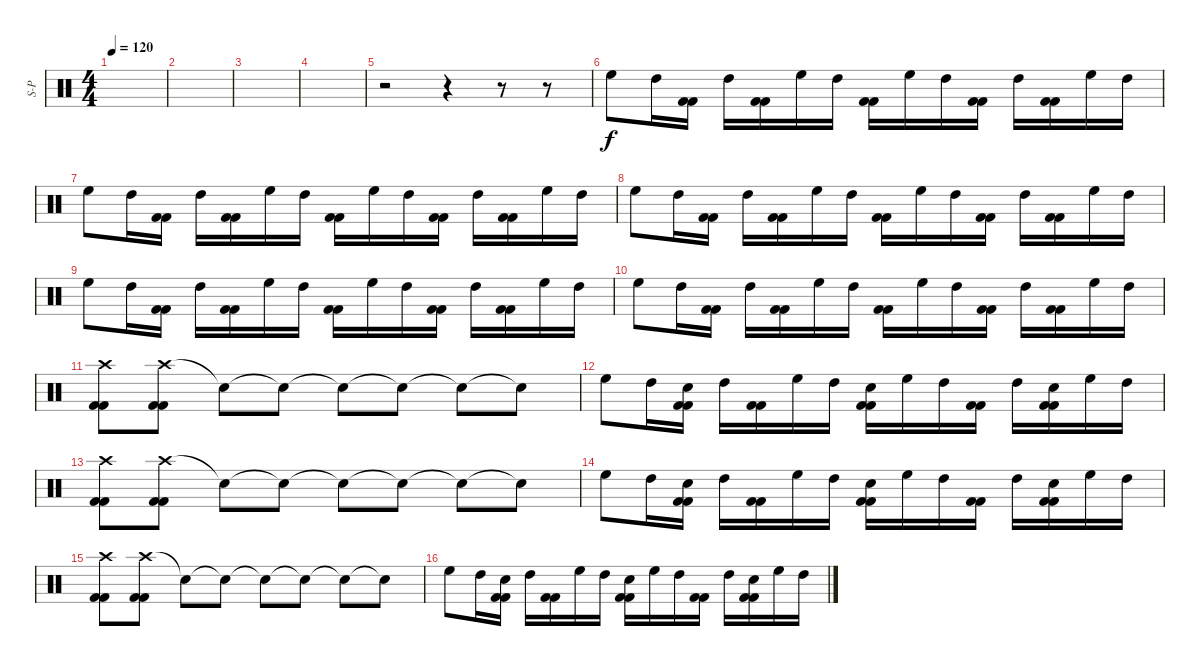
\track ("S-P" "S-P") {instrument percussion}
\staff {score}
\articulation defaults
\ts (4 4)
\tempo 120
\clef neutral
\ks c
|
|
|
|
r.2 r.4 r.8 r.8 |
"High Floor Tom (hit)".8 "High Tom (hit)".16 ("Kick (hit) 2" "Kick (hit) 2").16 "High Tom (hit)".16 ("Kick (hit) 2" "Kick (hit) 2").16 "High Floor Tom (hit)".16 "High Tom (hit)".16 ("Kick (hit) 2" "Kick (hit) 2").16 "High Floor Tom (hit)".16 "High Tom (hit)".16 ("Kick (hit) 2" "Kick (hit) 2").16 "High Tom (hit)".16 ("Kick (hit) 2" "Kick (hit) 2").16 "High Floor Tom (hit)".16 "High Tom (hit)".16 |
"High Floor Tom (hit)".8 "High Tom (hit)".16 ("Kick (hit) 2" "Kick (hit) 2").16 "High Tom (hit)".16 ("Kick (hit) 2" "Kick (hit) 2").16 "High Floor Tom (hit)".16 "High Tom (hit)".16 ("Kick (hit) 2" "Kick (hit) 2").16 "High Floor Tom (hit)".16 "High Tom (hit)".16 ("Kick (hit) 2" "Kick (hit) 2").16 "High Tom (hit)".16 ("Kick (hit) 2" "Kick (hit) 2").16 "High Floor Tom (hit)".16 "High Tom (hit)".16 |
"High Floor Tom (hit)".8 "High Tom (hit)".16 ("Kick (hit) 2" "Kick (hit) 2").16 "High Tom (hit)".16 ("Kick (hit) 2" "Kick (hit) 2").16 "High Floor Tom (hit)".16 "High Tom (hit)".16 ("Kick (hit) 2" "Kick (hit) 2").16 "High Floor Tom (hit)".16 "High Tom (hit)".16 ("Kick (hit) 2" "Kick (hit) 2").16 "High Tom (hit)".16 ("Kick (hit) 2" "Kick (hit) 2").16 "High Floor Tom (hit)".16 "High Tom (hit)".16 |
"High Floor Tom (hit)".8 "High Tom (hit)".16 ("Kick (hit) 2" "Kick (hit) 2").16 "High Tom (hit)".16 ("Kick (hit) 2" "Kick (hit) 2").16 "High Floor Tom (hit)".16 "High Tom (hit)".16 ("Kick (hit) 2" "Kick (hit) 2").16 "High Floor Tom (hit)".16 "High Tom (hit)".16 ("Kick (hit) 2" "Kick (hit) 2").16 "High Tom (hit)".16 ("Kick (hit) 2" "Kick (hit) 2").16 "High Floor Tom (hit)".16 "High Tom (hit)".16 |
"High Floor Tom (hit)".8 "High Tom (hit)".16 ("Kick (hit) 2" "Kick (hit) 2").16 "High Tom (hit)".16 ("Kick (hit) 2" "Kick (hit) 2").16 "High Floor Tom (hit)".16 "High Tom (hit)".16 ("Kick (hit) 2" "Kick (hit) 2").16 "High Floor Tom (hit)".16 "High Tom (hit)".16 ("Kick (hit) 2" "Kick (hit) 2").16 "High Tom (hit)".16 ("Kick (hit) 2" "Kick (hit) 2").16 "High Floor Tom (hit)".16 "High Tom (hit)".16 |
("Crash high (hit)" "Kick (hit) 2" "Kick (hit) 2").8 ("Crash high (hit)" "Kick (hit) 2" "Kick (hit) 2").8 "Snare (hit)"{t}.8 "Snare (hit)"{t}.8 "Snare (hit)"{t}.8 "Snare (hit)"{t}.8 "Snare (hit)"{t}.8 "Snare (hit)"{t}.8 |
"High Floor Tom (hit)".8 "High Tom (hit)".16 ("Electric Snare (hit)" "Kick (hit) 2" "Kick (hit) 2").16 "High Tom (hit)".16 ("Kick (hit) 2" "Kick (hit) 2").16 "High Floor Tom (hit)".16 "High Tom (hit)".16 ("Electric Snare (hit)" "Kick (hit) 2" "Kick (hit) 2").16 "High Floor Tom (hit)".16 "High Tom (hit)".16 ("Kick (hit) 2" "Kick (hit) 2").16 "High Tom (hit)".16 ("Electric Snare (hit)" "Kick (hit) 2" "Kick (hit) 2").16 "High Floor Tom (hit)".16 "High Tom (hit)".16 |
("Crash high (hit)" "Kick (hit) 2" "Kick (hit) 2").8 ("Crash high (hit)" "Kick (hit) 2" "Kick (hit) 2").8 "Snare (hit)"{t}.8 "Snare (hit)"{t}.8 "Snare (hit)"{t}.8 "Snare (hit)"{t}.8 "Snare (hit)"{t}.8 "Snare (hit)"{t}.8 |
"High Floor Tom (hit)".8 "High Tom (hit)".16 ("Electric Snare (hit)" "Kick (hit) 2" "Kick (hit) 2").16 "High Tom (hit)".16 ("Kick (hit) 2" "Kick (hit) 2").16 "High Floor Tom (hit)".16 "High Tom (hit)".16 ("Electric Snare (hit)" "Kick (hit) 2" "Kick (hit) 2").16 "High Floor Tom (hit)".16 "High Tom (hit)".16 ("Kick (hit) 2" "Kick (hit) 2").16 "High Tom (hit)".16 ("Electric Snare (hit)" "Kick (hit) 2" "Kick (hit) 2").16 "High Floor Tom (hit)".16 "High Tom (hit)".16 |
("Crash high (hit)" "Kick (hit) 2" "Kick (hit) 2").8 ("Crash high (hit)" "Kick (hit) 2" "Kick (hit) 2").8 "Snare (hit)"{t}.8 "Snare (hit)"{t}.8 "Snare (hit)"{t}.8 "Snare (hit)"{t}.8 "Snare (hit)"{t}.8 "Snare (hit)"{t}.8 |
"High Floor Tom (hit)".8 "High Tom (hit)".16 ("Electric Snare (hit)" "Kick (hit) 2" "Kick (hit) 2").16 "High Tom (hit)".16 ("Kick (hit) 2" "Kick (hit) 2").16 "High Floor Tom (hit)".16 "High Tom (hit)".16 ("Electric Snare (hit)" "Kick (hit) 2" "Kick (hit) 2").16 "High Floor Tom (hit)".16 "High Tom (hit)".16 ("Kick (hit) 2" "Kick (hit) 2").16 "High Tom (hit)".16 ("Electric Snare (hit)" "Kick (hit) 2" "Kick (hit) 2").16 "High Floor Tom (hit)".16 "High Tom (hit)".16
